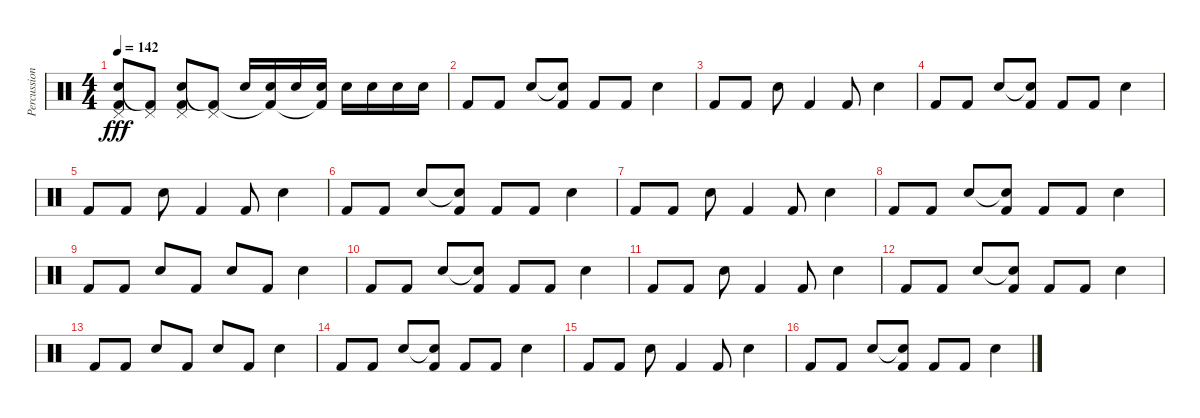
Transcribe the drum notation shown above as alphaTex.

\track ("Percussion" "Percussion") {instrument percussion}
\staff {score}
\articulation defaults
\ts (4 4)
\tempo 142
\clef neutral
\ks c
("Pedal Hi-Hat (hit)" "Snare (hit) 2" "Kick (hit) 2").8{dy fff} ("Pedal Hi-Hat (hit)" "Kick (hit) 2"{t}).8 ("Pedal Hi-Hat (hit)" "Snare (hit) 2" "Kick (hit) 2").8 ("Pedal Hi-Hat (hit)" "Kick (hit) 2"{t}).8 "Snare (hit) 2".16 ("Snare (hit) 2" "Kick (hit) 2"{t}).16 "Snare (hit) 2".16 ("Snare (hit) 2" "Kick (hit) 2"{t}).16 "Snare (hit) 2".16 "Snare (hit) 2".16 "Snare (hit) 2".16 "Snare (hit) 2".16 |
"Kick (hit) 2".8 "Kick (hit) 2".8 "Snare (hit) 2".8 ("Snare (hit) 2"{t} "Kick (hit) 2").8 "Kick (hit) 2".8 "Kick (hit) 2".8 "Snare (hit) 2".4 |
"Kick (hit) 2".8 "Kick (hit) 2".8 "Snare (hit) 2".8 "Kick (hit) 2".4 "Kick (hit) 2".8 "Snare (hit) 2".4 |
"Kick (hit) 2".8 "Kick (hit) 2".8 "Snare (hit) 2".8 ("Snare (hit) 2"{t} "Kick (hit) 2").8 "Kick (hit) 2".8 "Kick (hit) 2".8 "Snare (hit) 2".4 |
"Kick (hit) 2".8 "Kick (hit) 2".8 "Snare (hit) 2".8 "Kick (hit) 2".4 "Kick (hit) 2".8 "Snare (hit) 2".4 |
"Kick (hit) 2".8 "Kick (hit) 2".8 "Snare (hit) 2".8 ("Snare (hit) 2"{t} "Kick (hit) 2").8 "Kick (hit) 2".8 "Kick (hit) 2".8 "Snare (hit) 2".4 |
"Kick (hit) 2".8 "Kick (hit) 2".8 "Snare (hit) 2".8 "Kick (hit) 2".4 "Kick (hit) 2".8 "Snare (hit) 2".4 |
"Kick (hit) 2".8 "Kick (hit) 2".8 "Snare (hit) 2".8 ("Snare (hit) 2"{t} "Kick (hit) 2").8 "Kick (hit) 2".8 "Kick (hit) 2".8 "Snare (hit) 2".4 |
"Kick (hit) 2".8 "Kick (hit) 2".8 "Snare (hit) 2".8 "Kick (hit) 2".8 "Snare (hit) 2".8 "Kick (hit) 2".8 "Snare (hit) 2".4 |
"Kick (hit) 2".8 "Kick (hit) 2".8 "Snare (hit) 2".8 ("Snare (hit) 2"{t} "Kick (hit) 2").8 "Kick (hit) 2".8 "Kick (hit) 2".8 "Snare (hit) 2".4 |
"Kick (hit) 2".8 "Kick (hit) 2".8 "Snare (hit) 2".8 "Kick (hit) 2".4 "Kick (hit) 2".8 "Snare (hit) 2".4 |
"Kick (hit) 2".8 "Kick (hit) 2".8 "Snare (hit) 2".8 ("Snare (hit) 2"{t} "Kick (hit) 2").8 "Kick (hit) 2".8 "Kick (hit) 2".8 "Snare (hit) 2".4 |
"Kick (hit) 2".8 "Kick (hit) 2".8 "Snare (hit) 2".8 "Kick (hit) 2".8 "Snare (hit) 2".8 "Kick (hit) 2".8 "Snare (hit) 2".4 |
"Kick (hit) 2".8 "Kick (hit) 2".8 "Snare (hit) 2".8 ("Snare (hit) 2"{t} "Kick (hit) 2").8 "Kick (hit) 2".8 "Kick (hit) 2".8 "Snare (hit) 2".4 |
"Kick (hit) 2".8 "Kick (hit) 2".8 "Snare (hit) 2".8 "Kick (hit) 2".4 "Kick (hit) 2".8 "Snare (hit) 2".4 |
"Kick (hit) 2".8 "Kick (hit) 2".8 "Snare (hit) 2".8 ("Snare (hit) 2"{t} "Kick (hit) 2").8 "Kick (hit) 2".8 "Kick (hit) 2".8 "Snare (hit) 2".4
